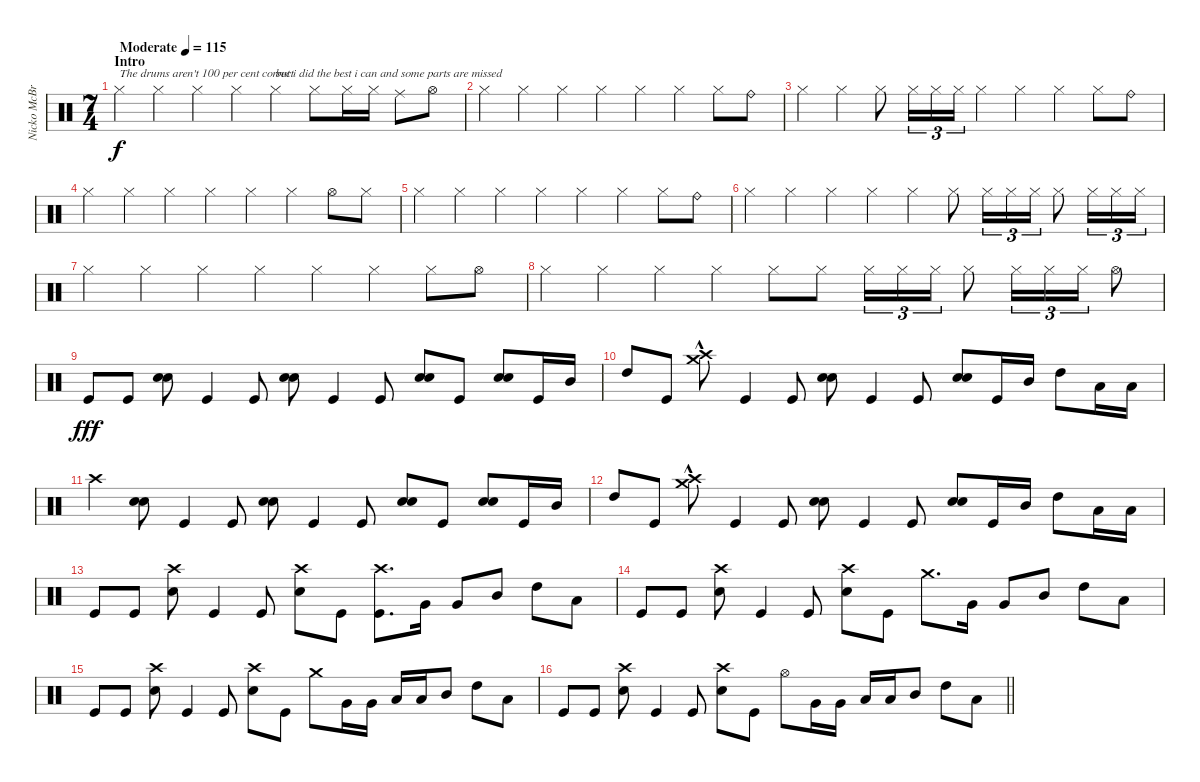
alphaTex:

\track ("Nicko McBrain" "Nicko McBr") {instrument percussion}
\staff {score}
\articulation defaults
\ts (7 4)
\section ("" "Intro")
\tempo (115 "Moderate")
\clef neutral
\ks c "Hi-Hat (closed)".4{txt "The drums aren't 100 per cent correct " dy f} "Hi-Hat (closed)".4 "Hi-Hat (closed)".4 "Hi-Hat (closed)".4 "Hi-Hat (closed)".4{txt "but i did the best i can and some parts are missed"} "Hi-Hat (closed)".8 "Hi-Hat (closed)".16 "Hi-Hat (closed)".16 "Ride (middle)".8 "Hi-Hat (open)".8
|
"Hi-Hat (closed)".4 "Hi-Hat (closed)".4 "Hi-Hat (closed)".4 "Hi-Hat (closed)".4 "Hi-Hat (closed)".4 "Hi-Hat (closed)".4 "Hi-Hat (closed)".8 "Ride (bell)".8 |
"Hi-Hat (closed)".4 "Hi-Hat (closed)".4 "Hi-Hat (closed)".8 "Hi-Hat (closed)".16{tu (3 2)} "Hi-Hat (closed)".16{tu (3 2)} "Hi-Hat (closed)".16{tu (3 2)} "Hi-Hat (closed)".4 "Hi-Hat (closed)".4 "Hi-Hat (closed)".4 "Hi-Hat (closed)".8 "Ride (bell)".8 |
"Hi-Hat (closed)".4 "Hi-Hat (closed)".4 "Hi-Hat (closed)".4 "Hi-Hat (closed)".4 "Hi-Hat (closed)".4 "Hi-Hat (closed)".4 "Hi-Hat (open)".8 "Hi-Hat (closed)".8 |
"Hi-Hat (closed)".4 "Hi-Hat (closed)".4 "Hi-Hat (closed)".4 "Hi-Hat (closed)".4 "Hi-Hat (closed)".4 "Hi-Hat (closed)".4 "Hi-Hat (closed)".8 "Ride (bell)".8 |
"Hi-Hat (closed)".4 "Hi-Hat (closed)".4 "Hi-Hat (closed)".4 "Hi-Hat (closed)".4 "Hi-Hat (closed)".4 "Hi-Hat (closed)".8 "Hi-Hat (closed)".16{tu (3 2)} "Hi-Hat (closed)".16{tu (3 2)} "Hi-Hat (closed)".16{tu (3 2)} "Hi-Hat (closed)".8 "Hi-Hat (closed)".16{tu (3 2)} "Hi-Hat (closed)".16{tu (3 2)} "Hi-Hat (closed)".16{tu (3 2)} |
"Hi-Hat (closed)".4 "Hi-Hat (closed)".4 "Hi-Hat (closed)".4 "Hi-Hat (closed)".4 "Hi-Hat (closed)".4 "Hi-Hat (closed)".4 "Hi-Hat (closed)".8 "Hi-Hat (open)".8 |
"Hi-Hat (closed)".4 "Hi-Hat (closed)".4 "Hi-Hat (closed)".4 "Hi-Hat (closed)".4 "Hi-Hat (closed)".8 "Hi-Hat (closed)".8 "Hi-Hat (closed)".16{tu (3 2)} "Hi-Hat (closed)".16{tu (3 2)} "Hi-Hat (closed)".16{tu (3 2)} "Hi-Hat (closed)".8 "Hi-Hat (closed)".16{tu (3 2)} "Hi-Hat (closed)".16{tu (3 2)} "Hi-Hat (closed)".16{tu (3 2)} "Hi-Hat (open)".8 |
"Kick (hit)".8{dy fff} "Kick (hit)".8 ("Electric Snare (hit)" "Electric Snare (hit)").8 "Kick (hit)".4 "Kick (hit)".8 ("Electric Snare (hit)" "Electric Snare (hit)").8 "Kick (hit)".4 "Kick (hit)".8 ("Electric Snare (hit)" "Electric Snare (hit)").8 "Kick (hit)".8 ("Electric Snare (hit)" "Electric Snare (hit)").8 "Kick (hit)".16 "Mid Tom (hit)".16 |
"High Tom (hit)".8 "Kick (hit)".8 ("Crash medium (hit)"{hac} "Crash high (hit)").8 "Kick (hit)".4 "Kick (hit)".8 ("Electric Snare (hit)" "Electric Snare (hit)").8 "Kick (hit)".4 "Kick (hit)".8 ("Electric Snare (hit)" "Electric Snare (hit)").8 "Kick (hit)".16 "Mid Tom (hit)".16 "High Tom (hit)".8 "Low Tom (hit)".16 "Low Tom (hit)".16 |
"Crash high (hit)".4 ("Electric Snare (hit)" "Electric Snare (hit)").8 "Kick (hit)".4 "Kick (hit)".8 ("Electric Snare (hit)" "Electric Snare (hit)").8 "Kick (hit)".4 "Kick (hit)".8 ("Electric Snare (hit)" "Electric Snare (hit)").8 "Kick (hit)".8 ("Electric Snare (hit)" "Electric Snare (hit)").8 "Kick (hit)".16 "Mid Tom (hit)".16 |
"High Tom (hit)".8 "Kick (hit)".8 ("Crash medium (hit)"{hac} "Crash high (hit)").8 "Kick (hit)".4 "Kick (hit)".8 ("Electric Snare (hit)" "Electric Snare (hit)").8 "Kick (hit)".4 "Kick (hit)".8 ("Electric Snare (hit)" "Electric Snare (hit)").8 "Kick (hit)".16 "Mid Tom (hit)".16 "High Tom (hit)".8 "Low Tom (hit)".16 "Low Tom (hit)".16 |
"Kick (hit)".8 "Kick (hit)".8 ("Crash high (hit)" "Electric Snare (hit)").8 "Kick (hit)".4 "Kick (hit)".8 ("Crash high (hit)" "Electric Snare (hit)").8 "Kick (hit)".8 ("Crash high (hit)" "Kick (hit)").8{d} "Very Low Tom (hit)".16 "Very Low Tom (hit)".8 "Mid Tom (hit)".8 "High Tom (hit)".8 "Low Tom (hit)".8 |
"Kick (hit)".8 "Kick (hit)".8 ("Crash high (hit)" "Electric Snare (hit)").8 "Kick (hit)".4 "Kick (hit)".8 ("Crash high (hit)" "Electric Snare (hit)").8 "Kick (hit)".8 "Crash medium (hit)".8{d} "Very Low Tom (hit)".16 "Very Low Tom (hit)".8 "Mid Tom (hit)".8 "High Tom (hit)".8 "Low Tom (hit)".8 |
"Kick (hit)".8 "Kick (hit)".8 ("Crash high (hit)" "Electric Snare (hit)").8 "Kick (hit)".4 "Kick (hit)".8 ("Crash high (hit)" "Electric Snare (hit)").8 "Kick (hit)".8 "Crash medium (hit)".8 "Very Low Tom (hit)".16 "Very Low Tom (hit)".16 "Low Tom (hit)".16 "Low Tom (hit)".16 "Mid Tom (hit)".8 "High Tom (hit)".8 "Low Tom (hit)".8 |
\barLineRight lightlight "Kick (hit)".8 "Kick (hit)".8
("Crash high (hit)" "Electric Snare (hit)").8 "Kick (hit)".4 "Kick (hit)".8 ("Crash high (hit)" "Electric Snare (hit)").8 "Kick (hit)".8 "Hi-Hat (open)".8 "Very Low Tom (hit)".16 "Very Low Tom (hit)".16 "Low Tom (hit)".16 "Low Tom (hit)".16 "Mid Tom (hit)".8 "High Tom (hit)".8 "Low Tom (hit)".8
